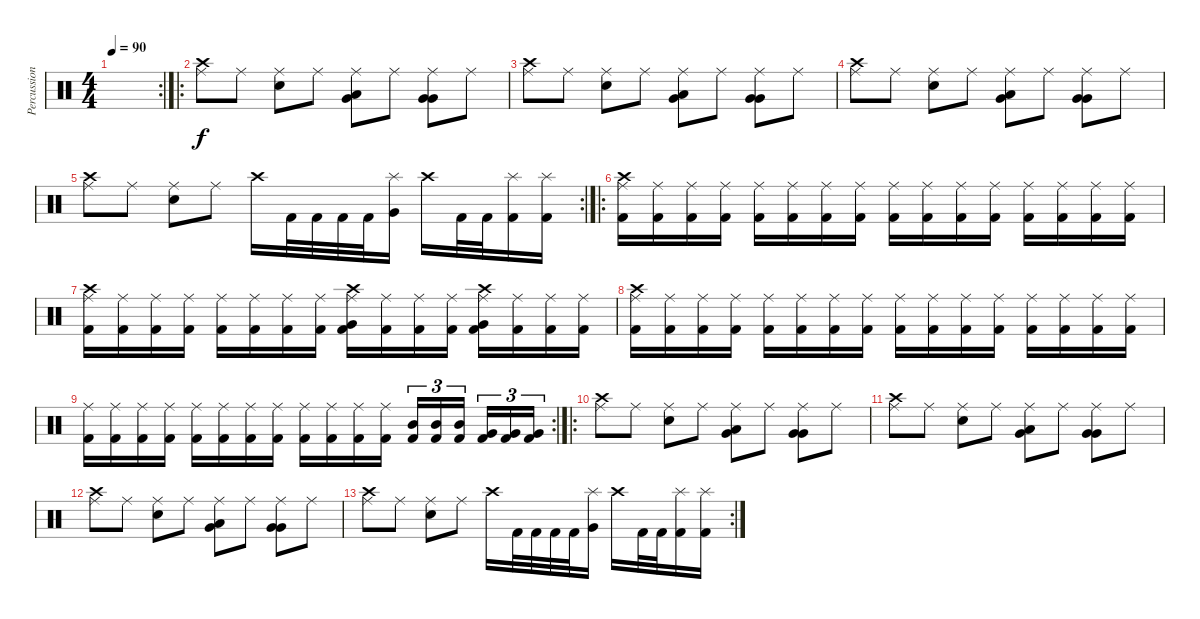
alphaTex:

\track ("Percussions" "Percussion") {instrument percussion}
\staff {score}
\articulation defaults
\rc 2
\ts (4 4)
\tempo 90
\clef neutral
\ks c
|
\ro
("Ride (middle)" "Crash high (hit)").8 "Ride (middle)".8 ("Ride (middle)" "Electric Snare (hit)").8 "Ride (middle)".8 ("Ride (middle)" "Low Tom (hit)" "Very Low Tom (hit)").8 "Ride (middle)".8 ("Ride (middle)" "Very Low Tom (hit)" "Very Low Tom (hit)").8 "Ride (middle)".8 |
("Ride (middle)" "Crash high (hit)").8 "Ride (middle)".8 ("Ride (middle)" "Electric Snare (hit)").8 "Ride (middle)".8 ("Ride (middle)" "Low Tom (hit)" "Very Low Tom (hit)").8 "Ride (middle)".8 ("Ride (middle)" "Very Low Tom (hit)" "Very Low Tom (hit)").8 "Ride (middle)".8 |
("Ride (middle)" "Crash high (hit)").8 "Ride (middle)".8 ("Ride (middle)" "Electric Snare (hit)").8 "Ride (middle)".8 ("Ride (middle)" "Low Tom (hit)" "Very Low Tom (hit)").8 "Ride (middle)".8 ("Ride (middle)" "Very Low Tom (hit)" "Very Low Tom (hit)").8 "Ride (middle)".8 |
\rc 2
("Ride (middle)" "Crash high (hit)").8 "Ride (middle)".8 ("Ride (middle)" "Electric Snare (hit)").8 "Ride (middle)".8 "Crash high (hit)".16 "Kick (hit) 2".32 "Kick (hit) 2".32 "Kick (hit) 2".32 "Kick (hit) 2".32 ("Very Low Tom (hit)" "Splash (hit)").16 "Crash high (hit)".16 "Kick (hit) 2".32 "Kick (hit) 2".32 ("Kick (hit) 2" "Splash (hit)").16 ("Kick (hit) 2" "Splash (hit)").16 |
\ro
("Kick (hit) 2" "Ride (middle)" "Crash high (hit)").16 ("Kick (hit) 2" "Ride (middle)").16 ("Kick (hit) 2" "Ride (middle)").16 ("Kick (hit) 2" "Ride (middle)").16 ("Kick (hit) 2" "Ride (middle)").16 ("Kick (hit) 2" "Ride (middle)").16 ("Kick (hit) 2" "Ride (middle)").16 ("Kick (hit) 2" "Ride (middle)").16 ("Kick (hit) 2" "Ride (middle)").16 ("Kick (hit) 2" "Ride (middle)").16 ("Kick (hit) 2" "Ride (middle)").16 ("Kick (hit) 2" "Ride (middle)").16 ("Kick (hit) 2" "Ride (middle)").16 ("Kick (hit) 2" "Ride (middle)").16 ("Kick (hit) 2" "Ride (middle)").16 ("Kick (hit) 2" "Ride (middle)").16 |
("Kick (hit) 2" "Ride (middle)" "Crash high (hit)").16 ("Kick (hit) 2" "Ride (middle)").16 ("Kick (hit) 2" "Ride (middle)").16 ("Kick (hit) 2" "Ride (middle)").16 ("Kick (hit) 2" "Ride (middle)").16 ("Kick (hit) 2" "Ride (middle)").16 ("Kick (hit) 2" "Ride (middle)").16 ("Kick (hit) 2" "Ride (middle)").16 ("Kick (hit) 2" "Ride (middle)" "Crash high (hit)" "Very Low Tom (hit)").16 ("Kick (hit) 2" "Ride (middle)").16 ("Kick (hit) 2" "Ride (middle)").16 ("Kick (hit) 2" "Ride (middle)").16 ("Kick (hit) 2" "Ride (middle)" "Crash high (hit)" "Very Low Tom (hit)").16 ("Kick (hit) 2" "Ride (middle)").16 ("Kick (hit) 2" "Ride (middle)").16 ("Kick (hit) 2" "Ride (middle)").16 |
("Kick (hit) 2" "Ride (middle)" "Crash high (hit)").16 ("Kick (hit) 2" "Ride (middle)").16 ("Kick (hit) 2" "Ride (middle)").16 ("Kick (hit) 2" "Ride (middle)").16 ("Kick (hit) 2" "Ride (middle)").16 ("Kick (hit) 2" "Ride (middle)").16 ("Kick (hit) 2" "Ride (middle)").16 ("Kick (hit) 2" "Ride (middle)").16 ("Kick (hit) 2" "Ride (middle)").16 ("Kick (hit) 2" "Ride (middle)").16 ("Kick (hit) 2" "Ride (middle)").16 ("Kick (hit) 2" "Ride (middle)").16 ("Kick (hit) 2" "Ride (middle)").16 ("Kick (hit) 2" "Ride (middle)").16 ("Kick (hit) 2" "Ride (middle)").16 ("Kick (hit) 2" "Ride (middle)").16 |
\rc 2
("Kick (hit) 2" "Ride (middle)").16 ("Kick (hit) 2" "Ride (middle)").16 ("Kick (hit) 2" "Ride (middle)").16 ("Kick (hit) 2" "Ride (middle)").16 ("Kick (hit) 2" "Ride (middle)").16 ("Kick (hit) 2" "Ride (middle)").16 ("Kick (hit) 2" "Ride (middle)").16 ("Kick (hit) 2" "Ride (middle)").16 ("Kick (hit) 2" "Ride (middle)").16 ("Kick (hit) 2" "Ride (middle)").16 ("Kick (hit) 2" "Ride (middle)").16 ("Kick (hit) 2" "Ride (middle)").16 ("Kick (hit) 2" "Mid Tom (hit)").16{tu (3 2)} ("Kick (hit) 2" "Mid Tom (hit)").16{tu (3 2)} ("Kick (hit) 2" "Mid Tom (hit)").16{tu (3 2)} ("Kick (hit) 2" "Very Low Tom (hit)").16{tu (3 2)} ("Kick (hit) 2" "Very Low Tom (hit)").16{tu (3 2)} ("Kick (hit) 2" "Very Low Tom (hit)").16{tu (3 2)} |
\ro
("Ride (middle)" "Crash high (hit)").8 "Ride (middle)".8 ("Ride (middle)" "Electric Snare (hit)").8 "Ride (middle)".8 ("Ride (middle)" "Low Tom (hit)" "Very Low Tom (hit)").8 "Ride (middle)".8 ("Ride (middle)" "Very Low Tom (hit)" "Very Low Tom (hit)").8 "Ride (middle)".8 |
("Ride (middle)" "Crash high (hit)").8 "Ride (middle)".8 ("Ride (middle)" "Electric Snare (hit)").8 "Ride (middle)".8 ("Ride (middle)" "Low Tom (hit)" "Very Low Tom (hit)").8 "Ride (middle)".8 ("Ride (middle)" "Very Low Tom (hit)" "Very Low Tom (hit)").8 "Ride (middle)".8 |
("Ride (middle)" "Crash high (hit)").8 "Ride (middle)".8 ("Ride (middle)" "Electric Snare (hit)").8 "Ride (middle)".8 ("Ride (middle)" "Low Tom (hit)" "Very Low Tom (hit)").8 "Ride (middle)".8 ("Ride (middle)" "Very Low Tom (hit)" "Very Low Tom (hit)").8 "Ride (middle)".8 |
\rc 2
("Ride (middle)" "Crash high (hit)").8 "Ride (middle)".8 ("Ride (middle)" "Electric Snare (hit)").8 "Ride (middle)".8 "Crash high (hit)".16 "Kick (hit) 2".32 "Kick (hit) 2".32 "Kick (hit) 2".32 "Kick (hit) 2".32 ("Very Low Tom (hit)" "Splash (hit)").16 "Crash high (hit)".16 "Kick (hit) 2".32 "Kick (hit) 2".32 ("Kick (hit) 2" "Splash (hit)").16 ("Kick (hit) 2" "Splash (hit)").16
